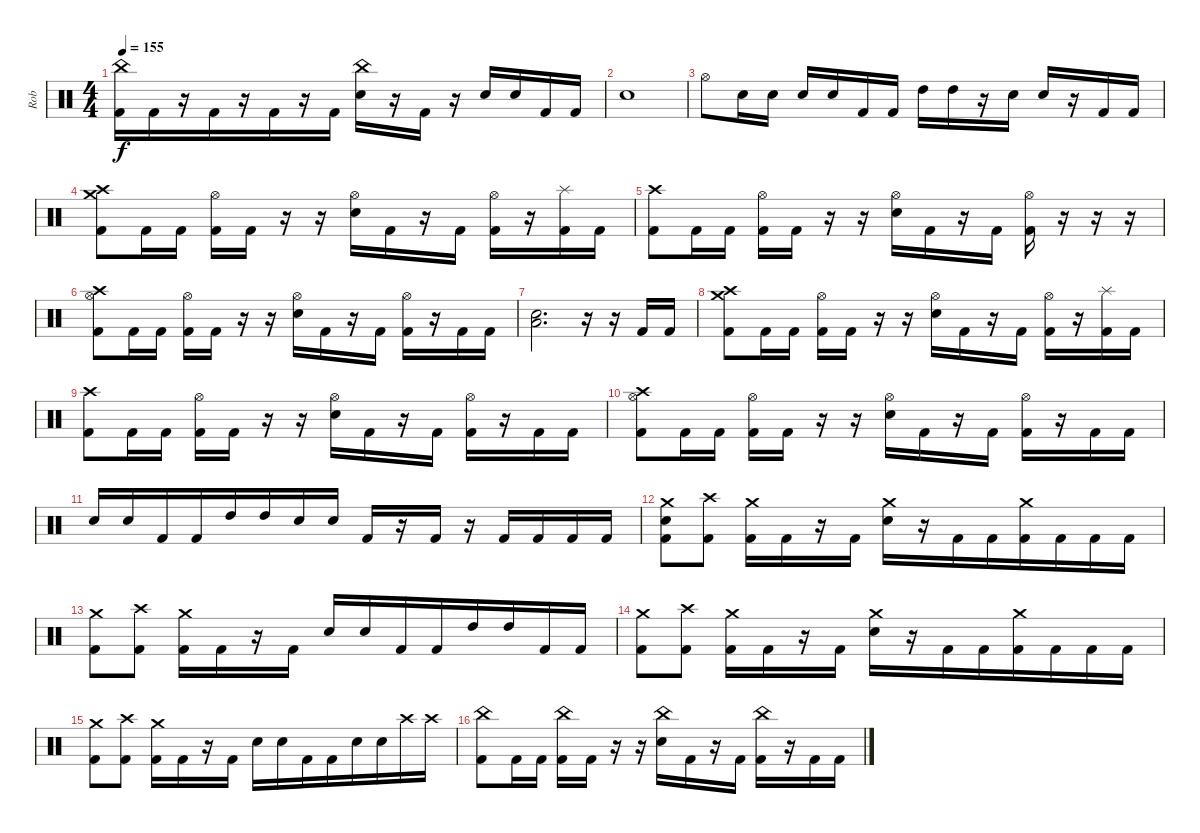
\track ("Rob" "Rob") {instrument percussion}
\staff {score}
\articulation defaults
\ts (4 4)
\tempo 155
\clef neutral
\ks c
("Kick (hit) 2" "China (hit)").16{dy f} "Kick (hit) 2".16 r.16 "Kick (hit) 2".16{beam merge} r.16 "Kick (hit) 2".16{beam merge} r.16 "Kick (hit) 2".16 ("Electric Snare (hit)" "China (hit)").16 r.16 "Kick (hit) 2".16 r.16 "Electric Snare (hit)".16 "Electric Snare (hit)".16{beam merge} "Kick (hit) 2".16 "Kick (hit) 2".16 |
"Electric Snare (hit)".1 |
"Hi-Hat (open)".8{beam merge} "Electric Snare (hit)".16{beam merge} "Electric Snare (hit)".16 "Electric Snare (hit)".16{beam merge} "Electric Snare (hit)".16 "Kick (hit) 2".16 "Kick (hit) 2".16 "High Tom (hit)".16 "High Tom (hit)".16 r.16 "Electric Snare (hit)".16 "Electric Snare (hit)".16 r.16{beam merge} "Kick (hit) 2".16 "Kick (hit) 2".16 |
("Crash high (hit)" "Crash medium (hit)" "Kick (hit) 2").8 "Kick (hit) 2".16 "Kick (hit) 2".16 ("Hi-Hat (open)" "Kick (hit) 2").16 "Kick (hit) 2".16 r.16 r.16 ("Hi-Hat (open)" "Electric Snare (hit)").16 "Kick (hit) 2".16 r.16 "Kick (hit) 2".16 ("Hi-Hat (open)" "Kick (hit) 2").16 r.16 ("Splash (hit)" "Kick (hit) 2").16 "Kick (hit) 2".16 |
("Crash high (hit)" "Kick (hit) 2").8 "Kick (hit) 2".16 "Kick (hit) 2".16 ("Hi-Hat (open)" "Kick (hit) 2").16 "Kick (hit) 2".16 r.16 r.16 ("Hi-Hat (open)" "Electric Snare (hit)").16 "Kick (hit) 2".16 r.16 "Kick (hit) 2".16 ("Hi-Hat (open)" "Kick (hit) 2").16 r.16 r.16 r.16 |
("Crash high (hit)" "Hi-Hat (open)" "Kick (hit) 2").8 "Kick (hit) 2".16 "Kick (hit) 2".16 ("Hi-Hat (open)" "Kick (hit) 2").16 "Kick (hit) 2".16 r.16 r.16 ("Hi-Hat (open)" "Electric Snare (hit)").16 "Kick (hit) 2".16 r.16 "Kick (hit) 2".16 ("Hi-Hat (open)" "Kick (hit) 2").16 r.16 "Kick (hit) 2".16 "Kick (hit) 2".16 |
("Electric Snare (hit)" "Low Tom (hit)").2{d} r.16 r.16 "Kick (hit) 2".16{beam merge} "Kick (hit) 2".16 |
("Crash medium (hit)" "Crash high (hit)" "Kick (hit) 2").8 "Kick (hit) 2".16 "Kick (hit) 2".16 ("Hi-Hat (open)" "Kick (hit) 2").16 "Kick (hit) 2".16 r.16 r.16 ("Hi-Hat (open)" "Electric Snare (hit)").16 "Kick (hit) 2".16 r.16 "Kick (hit) 2".16 ("Hi-Hat (open)" "Kick (hit) 2").16 r.16 ("Splash (hit)" "Kick (hit) 2").16 "Kick (hit) 2".16 |
("Crash high (hit)" "Kick (hit) 2").8 "Kick (hit) 2".16 "Kick (hit) 2".16 ("Hi-Hat (open)" "Kick (hit) 2").16 "Kick (hit) 2".16 r.16 r.16 ("Hi-Hat (open)" "Electric Snare (hit)").16 "Kick (hit) 2".16 r.16 "Kick (hit) 2".16 ("Hi-Hat (open)" "Kick (hit) 2").16 r.16 "Kick (hit) 2".16 "Kick (hit) 2".16 |
("Crash high (hit)" "Hi-Hat (open)" "Kick (hit) 2").8 "Kick (hit) 2".16 "Kick (hit) 2".16 ("Hi-Hat (open)" "Kick (hit) 2").16 "Kick (hit) 2".16 r.16 r.16 ("Hi-Hat (open)" "Electric Snare (hit)").16 "Kick (hit) 2".16 r.16 "Kick (hit) 2".16 ("Hi-Hat (open)" "Kick (hit) 2").16 r.16 "Kick (hit) 2".16 "Kick (hit) 2".16 |
"Electric Snare (hit)".16{beam merge} "Electric Snare (hit)".16 "Kick (hit) 2".16 "Kick (hit) 2".16{beam merge} "High Tom (hit)".16 "High Tom (hit)".16{beam merge} "Electric Snare (hit)".16 "Electric Snare (hit)".16 "Kick (hit) 2".16 r.16 "Kick (hit) 2".16 r.16 "Kick (hit) 2".16 "Kick (hit) 2".16 "Kick (hit) 2".16 "Kick (hit) 2".16 |
("Kick (hit) 2" "Crash medium (hit)" "Electric Snare (hit)").8 ("Kick (hit) 2" "Crash high (hit)").8 ("Kick (hit) 2" "Crash medium (hit)").16 "Kick (hit) 2".16 r.16 "Kick (hit) 2".16 ("Electric Snare (hit)" "Crash medium (hit)").16 r.16 "Kick (hit) 2".16 "Kick (hit) 2".16{beam merge} ("Kick (hit) 2" "Crash medium (hit)").16 "Kick (hit) 2".16 "Kick (hit) 2".16 "Kick (hit) 2".16 |
("Kick (hit) 2" "Crash medium (hit)").8 ("Kick (hit) 2" "Crash high (hit)").8 ("Kick (hit) 2" "Crash medium (hit)").16 "Kick (hit) 2".16 r.16 "Kick (hit) 2".16 "Electric Snare (hit)".16 "Electric Snare (hit)".16 "Kick (hit) 2".16 "Kick (hit) 2".16{beam merge} "High Tom (hit)".16 "High Tom (hit)".16 "Kick (hit) 2".16 "Kick (hit) 2".16 |
("Kick (hit) 2" "Crash medium (hit)").8 ("Kick (hit) 2" "Crash high (hit)").8 ("Kick (hit) 2" "Crash medium (hit)").16 "Kick (hit) 2".16 r.16 "Kick (hit) 2".16 ("Electric Snare (hit)" "Crash medium (hit)").16 r.16 "Kick (hit) 2".16 "Kick (hit) 2".16{beam merge} ("Kick (hit) 2" "Crash medium (hit)").16 "Kick (hit) 2".16 "Kick (hit) 2".16 "Kick (hit) 2".16 |
("Kick (hit) 2" "Crash medium (hit)").8 ("Kick (hit) 2" "Crash high (hit)").8 ("Kick (hit) 2" "Crash medium (hit)").16 "Kick (hit) 2".16 r.16 "Kick (hit) 2".16 "Electric Snare (hit)".16 "Electric Snare (hit)".16 "Kick (hit) 2".16 "Kick (hit) 2".16{beam merge} "Electric Snare (hit)".16 "Electric Snare (hit)".16 "Crash high (hit)".16 "Crash high (hit)".16 |
("China (hit)" "Kick (hit) 2").8 "Kick (hit) 2".16 "Kick (hit) 2".16 ("China (hit)" "Kick (hit) 2").16 "Kick (hit) 2".16 r.16 r.16 ("China (hit)" "Electric Snare (hit)").16 "Kick (hit) 2".16 r.16 "Kick (hit) 2".16 ("China (hit)" "Kick (hit) 2").16 r.16 "Kick (hit) 2".16 "Kick (hit) 2".16
